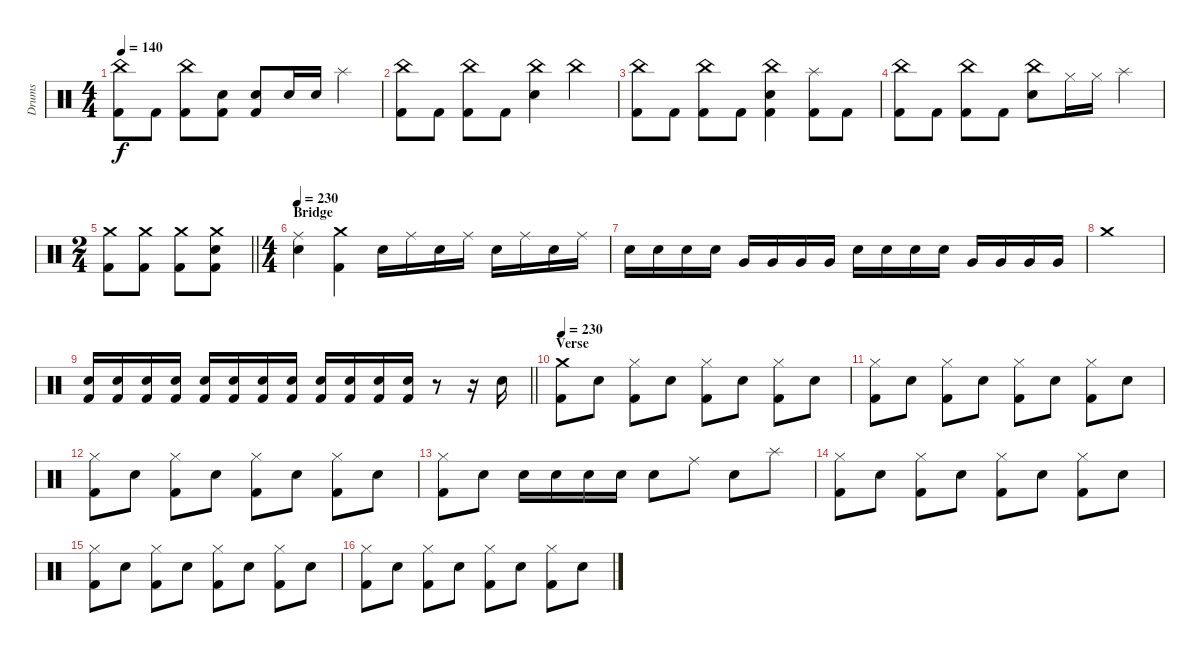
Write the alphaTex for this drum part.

\track ("Drums" "Drums") {instrument percussion}
\staff {score}
\articulation defaults
\ts (4 4)
\tempo 140
\clef neutral
\ks c
("China (hit)" "Kick (hit) 2").8{dy f} "Kick (hit) 2".8 ("China (hit)" "Kick (hit) 2").8 ("Snare (hit) 2" "Kick (hit) 2").8 ("Snare (hit) 2" "Kick (hit) 2").8 "Snare (hit) 2".16 "Snare (hit) 2".16 "Splash (hit)".4 |
("China (hit)" "Kick (hit) 2").8 "Kick (hit) 2".8 ("China (hit)" "Kick (hit) 2").8 "Kick (hit) 2".8 ("China (hit)" "Snare (hit) 2").4 "China (hit)".4 |
("China (hit)" "Kick (hit) 2").8 "Kick (hit) 2".8 ("China (hit)" "Kick (hit) 2").8 "Kick (hit) 2".8 ("China (hit)" "Kick (hit) 2" "Snare (hit) 2").4 ("Splash (hit)" "Kick (hit) 2").8 "Kick (hit) 2".8 |
("China (hit)" "Kick (hit) 2").8 "Kick (hit) 2".8 ("China (hit)" "Kick (hit) 2").8 "Kick (hit) 2".8 ("China (hit)" "Snare (hit) 2").8 "Hi-Hat (closed)".16 "Hi-Hat (closed)".16 "Splash (hit)".4 |
\ts (2 4)
\barLineRight lightlight
("Crash medium (hit)" "Kick (hit) 2").8 ("Crash medium (hit)" "Kick (hit) 2").8 ("Crash medium (hit)" "Kick (hit) 2").8 ("Crash medium (hit)" "Snare (hit) 2" "Kick (hit) 2").8 |
\ts (4 4)
\section ("" "Bridge")
\tempo 230
("Ride (middle)" "Snare (hit) 2").4 ("Crash medium (hit)" "Kick (hit) 2").4 "Snare (hit) 2".16 "Ride (middle)".16 "Snare (hit) 2".16 "Ride (middle)".16 "Snare (hit) 2".16 "Ride (middle)".16 "Snare (hit) 2".16 "Ride (middle)".16 |
"Snare (hit) 2".16 "Snare (hit) 2".16 "Snare (hit) 2".16 "Snare (hit) 2".16 "Very Low Tom (hit)".16 "Very Low Tom (hit)".16 "Very Low Tom (hit)".16 "Very Low Tom (hit)".16 "Snare (hit) 2".16 "Snare (hit) 2".16 "Snare (hit) 2".16 "Snare (hit) 2".16 "Very Low Tom (hit)".16 "Very Low Tom (hit)".16 "Very Low Tom (hit)".16 "Very Low Tom (hit)".16 |
"Crash medium (hit)".1 |
\barLineRight lightlight
("Snare (hit) 2" "Kick (hit) 2").16 ("Snare (hit) 2" "Kick (hit) 2").16 ("Snare (hit) 2" "Kick (hit) 2").16 ("Snare (hit) 2" "Kick (hit) 2").16 ("Snare (hit) 2" "Kick (hit) 2").16 ("Snare (hit) 2" "Kick (hit) 2").16 ("Snare (hit) 2" "Kick (hit) 2").16 ("Snare (hit) 2" "Kick (hit) 2").16 ("Snare (hit) 2" "Kick (hit) 2").16 ("Snare (hit) 2" "Kick (hit) 2").16 ("Snare (hit) 2" "Kick (hit) 2").16 ("Snare (hit) 2" "Kick (hit) 2").16 r.8 r.16 "Snare (hit) 2".16 |
\section ("" "Verse")
\tempo 230
("Crash medium (hit)" "Kick (hit) 2").8 "Snare (hit) 2".8 ("Hi-Hat (closed)" "Kick (hit) 2").8 "Snare (hit) 2".8 ("Hi-Hat (closed)" "Kick (hit) 2").8 "Snare (hit) 2".8 ("Hi-Hat (closed)" "Kick (hit) 2").8 "Snare (hit) 2".8 |
("Hi-Hat (closed)" "Kick (hit) 2").8 "Snare (hit) 2".8 ("Hi-Hat (closed)" "Kick (hit) 2").8 "Snare (hit) 2".8 ("Hi-Hat (closed)" "Kick (hit) 2").8 "Snare (hit) 2".8 ("Hi-Hat (closed)" "Kick (hit) 2").8 "Snare (hit) 2".8 |
("Hi-Hat (closed)" "Kick (hit) 2").8 "Snare (hit) 2".8 ("Hi-Hat (closed)" "Kick (hit) 2").8 "Snare (hit) 2".8 ("Hi-Hat (closed)" "Kick (hit) 2").8 "Snare (hit) 2".8 ("Hi-Hat (closed)" "Kick (hit) 2").8 "Snare (hit) 2".8 |
("Hi-Hat (closed)" "Kick (hit) 2").8 "Snare (hit) 2".8 "Snare (hit) 2".16 "Snare (hit) 2".16 "Snare (hit) 2".16 "Snare (hit) 2".16 "Snare (hit) 2".8 "Ride (middle)".8 "Snare (hit) 2".8 "Splash (hit)".8 |
("Hi-Hat (closed)" "Kick (hit) 2").8 "Snare (hit) 2".8 ("Hi-Hat (closed)" "Kick (hit) 2").8 "Snare (hit) 2".8 ("Hi-Hat (closed)" "Kick (hit) 2").8 "Snare (hit) 2".8 ("Hi-Hat (closed)" "Kick (hit) 2").8 "Snare (hit) 2".8 |
("Hi-Hat (closed)" "Kick (hit) 2").8 "Snare (hit) 2".8 ("Hi-Hat (closed)" "Kick (hit) 2").8 "Snare (hit) 2".8 ("Hi-Hat (closed)" "Kick (hit) 2").8 "Snare (hit) 2".8 ("Hi-Hat (closed)" "Kick (hit) 2").8 "Snare (hit) 2".8 |
("Hi-Hat (closed)" "Kick (hit) 2").8 "Snare (hit) 2".8 ("Hi-Hat (closed)" "Kick (hit) 2").8 "Snare (hit) 2".8 ("Hi-Hat (closed)" "Kick (hit) 2").8 "Snare (hit) 2".8 ("Hi-Hat (closed)" "Kick (hit) 2").8 "Snare (hit) 2".8
